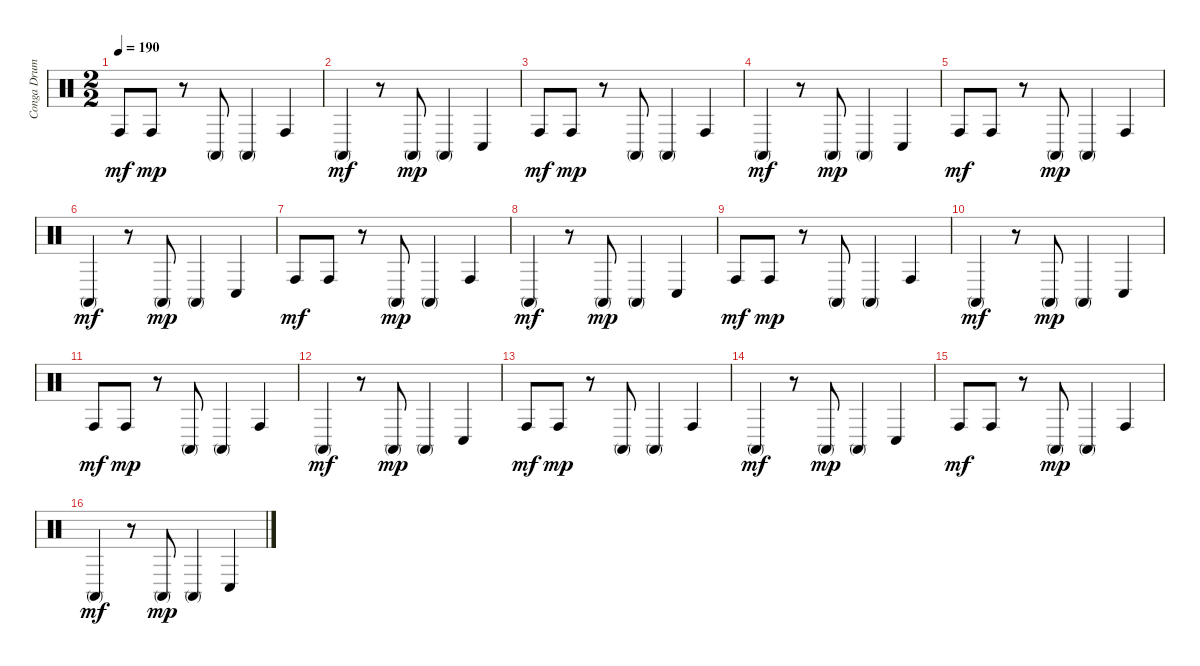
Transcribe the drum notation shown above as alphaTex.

\track ("Conga Drums" "Conga Drum") {instrument percussion}
\staff {score}
\articulation defaults
\ts (2 2)
\tempo 190
\clef neutral
\ks c "Conga high (hit)".8{dy mf} "Conga high (hit)".8{dy mp}
r.8 "Conga high (mute)".8 "Conga high (mute)".4 "Conga high (hit)".4 |
"Conga high (mute)".4{dy mf} r.8 "Conga high (mute)".8{dy mp} "Conga high (mute)".4 "Conga low (hit)".4 |
"Conga high (hit)".8{dy mf} "Conga high (hit)".8{dy mp} r.8 "Conga high (mute)".8 "Conga high (mute)".4 "Conga high (hit)".4 |
"Conga high (mute)".4{dy mf} r.8 "Conga high (mute)".8{dy mp} "Conga high (mute)".4 "Conga low (hit)".4 |
"Conga high (hit)".8{dy mf} "Conga high (hit)".8 r.8 "Conga high (mute)".8{dy mp} "Conga high (mute)".4 "Conga high (hit)".4 |
"Conga high (mute)".4{dy mf} r.8 "Conga high (mute)".8{dy mp} "Conga high (mute)".4 "Conga low (hit)".4 |
"Conga high (hit)".8{dy mf} "Conga high (hit)".8 r.8 "Conga high (mute)".8{dy mp} "Conga high (mute)".4 "Conga high (hit)".4 |
"Conga high (mute)".4{dy mf} r.8 "Conga high (mute)".8{dy mp} "Conga high (mute)".4 "Conga low (hit)".4 |
"Conga high (hit)".8{dy mf} "Conga high (hit)".8{dy mp} r.8 "Conga high (mute)".8 "Conga high (mute)".4 "Conga high (hit)".4 |
"Conga high (mute)".4{dy mf} r.8 "Conga high (mute)".8{dy mp} "Conga high (mute)".4 "Conga low (hit)".4 |
"Conga high (hit)".8{dy mf} "Conga high (hit)".8{dy mp} r.8 "Conga high (mute)".8 "Conga high (mute)".4 "Conga high (hit)".4 |
"Conga high (mute)".4{dy mf} r.8 "Conga high (mute)".8{dy mp} "Conga high (mute)".4 "Conga low (hit)".4 |
"Conga high (hit)".8{dy mf} "Conga high (hit)".8{dy mp} r.8 "Conga high (mute)".8 "Conga high (mute)".4 "Conga high (hit)".4 |
"Conga high (mute)".4{dy mf} r.8 "Conga high (mute)".8{dy mp} "Conga high (mute)".4 "Conga low (hit)".4 |
"Conga high (hit)".8{dy mf} "Conga high (hit)".8 r.8 "Conga high (mute)".8{dy mp} "Conga high (mute)".4 "Conga high (hit)".4 |
"Conga high (mute)".4{dy mf} r.8 "Conga high (mute)".8{dy mp} "Conga high (mute)".4 "Conga low (hit)".4
